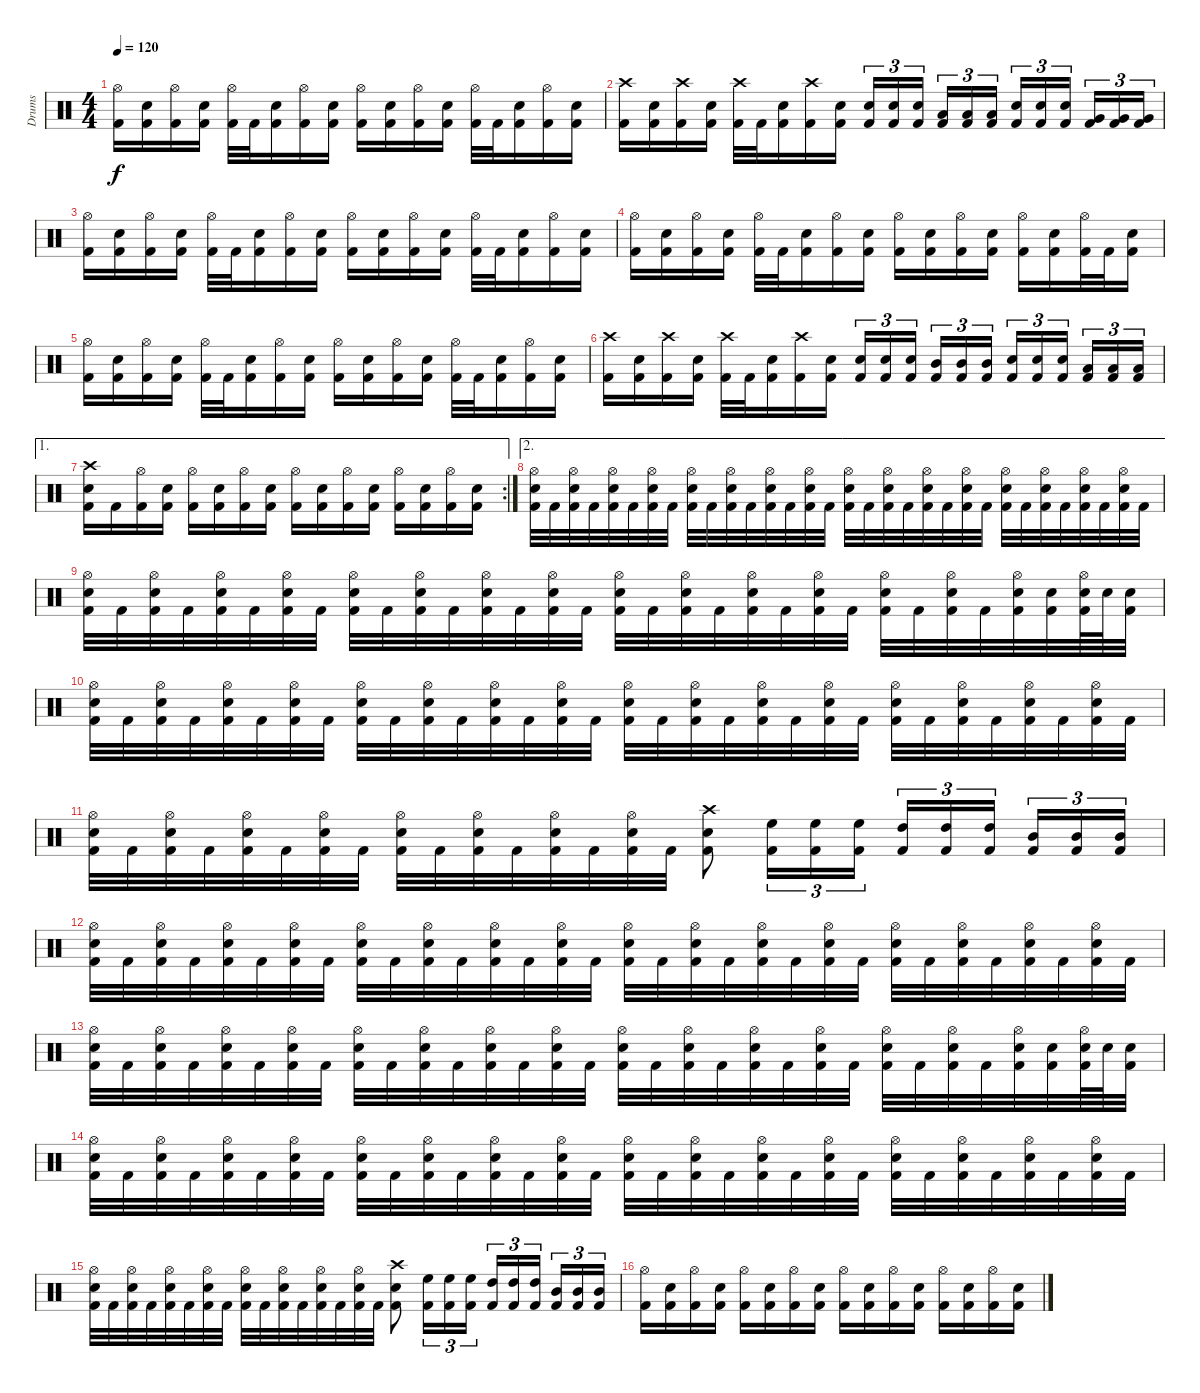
\track ("Drums" "Drums") {instrument percussion}
\staff {score}
\articulation defaults
\ts (4 4)
\tempo 120
\clef neutral
\ks c
("Hi-Hat (open)" "Kick (hit) 2").16{dy f} ("Electric Snare (hit)" "Kick (hit) 2").16 ("Hi-Hat (open)" "Kick (hit) 2").16 ("Electric Snare (hit)" "Kick (hit) 2").16 ("Hi-Hat (open)" "Kick (hit) 2").32 "Kick (hit) 2".32 ("Electric Snare (hit)" "Kick (hit) 2").16 ("Hi-Hat (open)" "Kick (hit) 2").16 ("Electric Snare (hit)" "Kick (hit) 2").16 ("Hi-Hat (open)" "Kick (hit) 2").16 ("Electric Snare (hit)" "Kick (hit) 2").16 ("Hi-Hat (open)" "Kick (hit) 2").16 ("Electric Snare (hit)" "Kick (hit) 2").16 ("Hi-Hat (open)" "Kick (hit) 2").32 "Kick (hit) 2".32 ("Electric Snare (hit)" "Kick (hit) 2").16 ("Hi-Hat (open)" "Kick (hit) 2").16 ("Electric Snare (hit)" "Kick (hit) 2").16 |
("Crash high (hit)" "Kick (hit) 2").16 ("Electric Snare (hit)" "Kick (hit) 2").16 ("Crash high (hit)" "Kick (hit) 2").16 ("Electric Snare (hit)" "Kick (hit) 2").16 ("Crash high (hit)" "Kick (hit) 2").32 "Kick (hit) 2".32 ("Electric Snare (hit)" "Kick (hit) 2").16 ("Crash high (hit)" "Kick (hit) 2").16 ("Electric Snare (hit)" "Kick (hit) 2").16 ("Electric Snare (hit)" "Kick (hit) 2").16{tu (3 2)} ("Electric Snare (hit)" "Kick (hit) 2").16{tu (3 2)} ("Electric Snare (hit)" "Kick (hit) 2").16{tu (3 2) beam splitsecondary} ("Low Tom (hit)" "Kick (hit) 2").16{tu (3 2)} ("Low Tom (hit)" "Kick (hit) 2").16{tu (3 2)} ("Low Tom (hit)" "Kick (hit) 2").16{tu (3 2)} ("Electric Snare (hit)" "Kick (hit) 2").16{tu (3 2)} ("Electric Snare (hit)" "Kick (hit) 2").16{tu (3 2)} ("Electric Snare (hit)" "Kick (hit) 2").16{tu (3 2) beam splitsecondary} ("Very Low Tom (hit)" "Kick (hit) 2").16{tu (3 2)} ("Very Low Tom (hit)" "Kick (hit) 2").16{tu (3 2)} ("Very Low Tom (hit)" "Kick (hit) 2").16{tu (3 2)} |
("Hi-Hat (open)" "Kick (hit) 2").16 ("Electric Snare (hit)" "Kick (hit) 2").16 ("Hi-Hat (open)" "Kick (hit) 2").16 ("Electric Snare (hit)" "Kick (hit) 2").16 ("Hi-Hat (open)" "Kick (hit) 2").32 "Kick (hit) 2".32 ("Electric Snare (hit)" "Kick (hit) 2").16 ("Hi-Hat (open)" "Kick (hit) 2").16 ("Electric Snare (hit)" "Kick (hit) 2").16 ("Hi-Hat (open)" "Kick (hit) 2").16 ("Electric Snare (hit)" "Kick (hit) 2").16 ("Hi-Hat (open)" "Kick (hit) 2").16 ("Electric Snare (hit)" "Kick (hit) 2").16 ("Hi-Hat (open)" "Kick (hit) 2").32 "Kick (hit) 2".32 ("Electric Snare (hit)" "Kick (hit) 2").16 ("Hi-Hat (open)" "Kick (hit) 2").16 ("Electric Snare (hit)" "Kick (hit) 2").16 |
("Hi-Hat (open)" "Kick (hit) 2").16 ("Electric Snare (hit)" "Kick (hit) 2").16 ("Hi-Hat (open)" "Kick (hit) 2").16 ("Electric Snare (hit)" "Kick (hit) 2").16 ("Hi-Hat (open)" "Kick (hit) 2").32 "Kick (hit) 2".32 ("Electric Snare (hit)" "Kick (hit) 2").16 ("Hi-Hat (open)" "Kick (hit) 2").16 ("Electric Snare (hit)" "Kick (hit) 2").16 ("Hi-Hat (open)" "Kick (hit) 2").16 ("Electric Snare (hit)" "Kick (hit) 2").16 ("Hi-Hat (open)" "Kick (hit) 2").16 ("Electric Snare (hit)" "Kick (hit) 2").16 ("Hi-Hat (open)" "Kick (hit) 2").16 ("Electric Snare (hit)" "Kick (hit) 2").16 ("Hi-Hat (open)" "Kick (hit) 2").32 "Kick (hit) 2".32 ("Electric Snare (hit)" "Kick (hit) 2").16 |
("Hi-Hat (open)" "Kick (hit) 2").16 ("Electric Snare (hit)" "Kick (hit) 2").16 ("Hi-Hat (open)" "Kick (hit) 2").16 ("Electric Snare (hit)" "Kick (hit) 2").16 ("Hi-Hat (open)" "Kick (hit) 2").32 "Kick (hit) 2".32 ("Electric Snare (hit)" "Kick (hit) 2").16 ("Hi-Hat (open)" "Kick (hit) 2").16 ("Electric Snare (hit)" "Kick (hit) 2").16 ("Hi-Hat (open)" "Kick (hit) 2").16 ("Electric Snare (hit)" "Kick (hit) 2").16 ("Hi-Hat (open)" "Kick (hit) 2").16 ("Electric Snare (hit)" "Kick (hit) 2").16 ("Hi-Hat (open)" "Kick (hit) 2").32 "Kick (hit) 2".32 ("Electric Snare (hit)" "Kick (hit) 2").16 ("Hi-Hat (open)" "Kick (hit) 2").16 ("Electric Snare (hit)" "Kick (hit) 2").16 |
("Crash high (hit)" "Kick (hit) 2").16 ("Electric Snare (hit)" "Kick (hit) 2").16 ("Crash high (hit)" "Kick (hit) 2").16 ("Electric Snare (hit)" "Kick (hit) 2").16 ("Crash high (hit)" "Kick (hit) 2").32 "Kick (hit) 2".32 ("Electric Snare (hit)" "Kick (hit) 2").16 ("Crash high (hit)" "Kick (hit) 2").16 ("Electric Snare (hit)" "Kick (hit) 2").16 ("Electric Snare (hit)" "Kick (hit) 2").16{tu (3 2)} ("Electric Snare (hit)" "Kick (hit) 2").16{tu (3 2)} ("Electric Snare (hit)" "Kick (hit) 2").16{tu (3 2) beam splitsecondary} ("Mid Tom (hit)" "Kick (hit) 2").16{tu (3 2)} ("Mid Tom (hit)" "Kick (hit) 2").16{tu (3 2)} ("Mid Tom (hit)" "Kick (hit) 2").16{tu (3 2)} ("Electric Snare (hit)" "Kick (hit) 2").16{tu (3 2)} ("Electric Snare (hit)" "Kick (hit) 2").16{tu (3 2)} ("Electric Snare (hit)" "Kick (hit) 2").16{tu (3 2) beam splitsecondary} ("Low Tom (hit)" "Kick (hit) 2").16{tu (3 2)} ("Low Tom (hit)" "Kick (hit) 2").16{tu (3 2)} ("Low Tom (hit)" "Kick (hit) 2").16{tu (3 2)} |
\ae 1
\rc 2
("Crash high (hit)" "Electric Snare (hit)" "Kick (hit) 2").16 "Kick (hit) 2".16 ("Hi-Hat (open)" "Kick (hit) 2").16 ("Electric Snare (hit)" "Kick (hit) 2").16 ("Hi-Hat (open)" "Kick (hit) 2").16 ("Electric Snare (hit)" "Kick (hit) 2").16 ("Hi-Hat (open)" "Kick (hit) 2").16 ("Electric Snare (hit)" "Kick (hit) 2").16 ("Hi-Hat (open)" "Kick (hit) 2").16 ("Electric Snare (hit)" "Kick (hit) 2").16 ("Hi-Hat (open)" "Kick (hit) 2").16 ("Electric Snare (hit)" "Kick (hit) 2").16 ("Hi-Hat (open)" "Kick (hit) 2").16 ("Electric Snare (hit)" "Kick (hit) 2").16 ("Hi-Hat (open)" "Kick (hit) 2").16 ("Electric Snare (hit)" "Kick (hit) 2").16 |
\ae 2
("Hi-Hat (open)" "Electric Snare (hit)" "Kick (hit) 2").32 "Kick (hit) 2".32 ("Hi-Hat (open)" "Electric Snare (hit)" "Kick (hit) 2").32 "Kick (hit) 2".32 ("Hi-Hat (open)" "Electric Snare (hit)" "Kick (hit) 2").32 "Kick (hit) 2".32 ("Hi-Hat (open)" "Electric Snare (hit)" "Kick (hit) 2").32 "Kick (hit) 2".32 ("Hi-Hat (open)" "Electric Snare (hit)" "Kick (hit) 2").32 "Kick (hit) 2".32 ("Hi-Hat (open)" "Electric Snare (hit)" "Kick (hit) 2").32 "Kick (hit) 2".32 ("Hi-Hat (open)" "Electric Snare (hit)" "Kick (hit) 2").32 "Kick (hit) 2".32 ("Hi-Hat (open)" "Electric Snare (hit)" "Kick (hit) 2").32 "Kick (hit) 2".32 ("Hi-Hat (open)" "Electric Snare (hit)" "Kick (hit) 2").32 "Kick (hit) 2".32 ("Hi-Hat (open)" "Electric Snare (hit)" "Kick (hit) 2").32 "Kick (hit) 2".32 ("Hi-Hat (open)" "Electric Snare (hit)" "Kick (hit) 2").32 "Kick (hit) 2".32 ("Hi-Hat (open)" "Electric Snare (hit)" "Kick (hit) 2").32 "Kick (hit) 2".32 ("Hi-Hat (open)" "Electric Snare (hit)" "Kick (hit) 2").32 "Kick (hit) 2".32 ("Hi-Hat (open)" "Electric Snare (hit)" "Kick (hit) 2").32 "Kick (hit) 2".32 ("Hi-Hat (open)" "Electric Snare (hit)" "Kick (hit) 2").32 "Kick (hit) 2".32 ("Hi-Hat (open)" "Electric Snare (hit)" "Kick (hit) 2").32 "Kick (hit) 2".32 |
("Hi-Hat (open)" "Electric Snare (hit)" "Kick (hit) 2").32 "Kick (hit) 2".32 ("Hi-Hat (open)" "Electric Snare (hit)" "Kick (hit) 2").32 "Kick (hit) 2".32 ("Hi-Hat (open)" "Electric Snare (hit)" "Kick (hit) 2").32 "Kick (hit) 2".32 ("Hi-Hat (open)" "Electric Snare (hit)" "Kick (hit) 2").32 "Kick (hit) 2".32 ("Hi-Hat (open)" "Electric Snare (hit)" "Kick (hit) 2").32 "Kick (hit) 2".32 ("Hi-Hat (open)" "Electric Snare (hit)" "Kick (hit) 2").32 "Kick (hit) 2".32 ("Hi-Hat (open)" "Electric Snare (hit)" "Kick (hit) 2").32 "Kick (hit) 2".32 ("Hi-Hat (open)" "Electric Snare (hit)" "Kick (hit) 2").32 "Kick (hit) 2".32 ("Hi-Hat (open)" "Electric Snare (hit)" "Kick (hit) 2").32 "Kick (hit) 2".32 ("Hi-Hat (open)" "Electric Snare (hit)" "Kick (hit) 2").32 "Kick (hit) 2".32 ("Hi-Hat (open)" "Electric Snare (hit)" "Kick (hit) 2").32 "Kick (hit) 2".32 ("Hi-Hat (open)" "Electric Snare (hit)" "Kick (hit) 2").32 "Kick (hit) 2".32 ("Hi-Hat (open)" "Electric Snare (hit)" "Kick (hit) 2").32 "Kick (hit) 2".32 ("Hi-Hat (open)" "Electric Snare (hit)" "Kick (hit) 2").32 "Kick (hit) 2".32 ("Hi-Hat (open)" "Electric Snare (hit)" "Kick (hit) 2").32 ("Electric Snare (hit)" "Kick (hit) 2").32 ("Hi-Hat (open)" "Electric Snare (hit)" "Kick (hit) 2").64 "Electric Snare (hit)".64 ("Electric Snare (hit)" "Kick (hit) 2").32 |
("Hi-Hat (open)" "Electric Snare (hit)" "Kick (hit) 2").32 "Kick (hit) 2".32 ("Hi-Hat (open)" "Electric Snare (hit)" "Kick (hit) 2").32 "Kick (hit) 2".32 ("Hi-Hat (open)" "Electric Snare (hit)" "Kick (hit) 2").32 "Kick (hit) 2".32 ("Hi-Hat (open)" "Electric Snare (hit)" "Kick (hit) 2").32 "Kick (hit) 2".32 ("Hi-Hat (open)" "Electric Snare (hit)" "Kick (hit) 2").32 "Kick (hit) 2".32 ("Hi-Hat (open)" "Electric Snare (hit)" "Kick (hit) 2").32 "Kick (hit) 2".32 ("Hi-Hat (open)" "Electric Snare (hit)" "Kick (hit) 2").32 "Kick (hit) 2".32 ("Hi-Hat (open)" "Electric Snare (hit)" "Kick (hit) 2").32 "Kick (hit) 2".32 ("Hi-Hat (open)" "Electric Snare (hit)" "Kick (hit) 2").32 "Kick (hit) 2".32 ("Hi-Hat (open)" "Electric Snare (hit)" "Kick (hit) 2").32 "Kick (hit) 2".32 ("Hi-Hat (open)" "Electric Snare (hit)" "Kick (hit) 2").32 "Kick (hit) 2".32 ("Hi-Hat (open)" "Electric Snare (hit)" "Kick (hit) 2").32 "Kick (hit) 2".32 ("Hi-Hat (open)" "Electric Snare (hit)" "Kick (hit) 2").32 "Kick (hit) 2".32 ("Hi-Hat (open)" "Electric Snare (hit)" "Kick (hit) 2").32 "Kick (hit) 2".32 ("Hi-Hat (open)" "Electric Snare (hit)" "Kick (hit) 2").32 "Kick (hit) 2".32 ("Hi-Hat (open)" "Electric Snare (hit)" "Kick (hit) 2").32 "Kick (hit) 2".32 |
("Hi-Hat (open)" "Electric Snare (hit)" "Kick (hit) 2").32 "Kick (hit) 2".32 ("Hi-Hat (open)" "Electric Snare (hit)" "Kick (hit) 2").32 "Kick (hit) 2".32 ("Hi-Hat (open)" "Electric Snare (hit)" "Kick (hit) 2").32 "Kick (hit) 2".32 ("Hi-Hat (open)" "Electric Snare (hit)" "Kick (hit) 2").32 "Kick (hit) 2".32 ("Hi-Hat (open)" "Electric Snare (hit)" "Kick (hit) 2").32 "Kick (hit) 2".32 ("Hi-Hat (open)" "Electric Snare (hit)" "Kick (hit) 2").32 "Kick (hit) 2".32 ("Hi-Hat (open)" "Electric Snare (hit)" "Kick (hit) 2").32 "Kick (hit) 2".32 ("Hi-Hat (open)" "Electric Snare (hit)" "Kick (hit) 2").32 "Kick (hit) 2".32 ("Crash high (hit)" "Electric Snare (hit)" "Kick (hit) 2").8 ("High Floor Tom (hit)" "Kick (hit) 2").16{tu (3 2)} ("High Floor Tom (hit)" "Kick (hit) 2").16{tu (3 2)} ("High Floor Tom (hit)" "Kick (hit) 2").16{tu (3 2)} ("High Tom (hit)" "Kick (hit) 2").16{tu (3 2)} ("High Tom (hit)" "Kick (hit) 2").16{tu (3 2)} ("High Tom (hit)" "Kick (hit) 2").16{tu (3 2) beam splitsecondary} ("Mid Tom (hit)" "Kick (hit) 2").16{tu (3 2)} ("Mid Tom (hit)" "Kick (hit) 2").16{tu (3 2)} ("Mid Tom (hit)" "Kick (hit) 2").16{tu (3 2)} |
("Hi-Hat (open)" "Electric Snare (hit)" "Kick (hit) 2").32 "Kick (hit) 2".32 ("Hi-Hat (open)" "Electric Snare (hit)" "Kick (hit) 2").32 "Kick (hit) 2".32 ("Hi-Hat (open)" "Electric Snare (hit)" "Kick (hit) 2").32 "Kick (hit) 2".32 ("Hi-Hat (open)" "Electric Snare (hit)" "Kick (hit) 2").32 "Kick (hit) 2".32 ("Hi-Hat (open)" "Electric Snare (hit)" "Kick (hit) 2").32 "Kick (hit) 2".32 ("Hi-Hat (open)" "Electric Snare (hit)" "Kick (hit) 2").32 "Kick (hit) 2".32 ("Hi-Hat (open)" "Electric Snare (hit)" "Kick (hit) 2").32 "Kick (hit) 2".32 ("Hi-Hat (open)" "Electric Snare (hit)" "Kick (hit) 2").32 "Kick (hit) 2".32 ("Hi-Hat (open)" "Electric Snare (hit)" "Kick (hit) 2").32 "Kick (hit) 2".32 ("Hi-Hat (open)" "Electric Snare (hit)" "Kick (hit) 2").32 "Kick (hit) 2".32 ("Hi-Hat (open)" "Electric Snare (hit)" "Kick (hit) 2").32 "Kick (hit) 2".32 ("Hi-Hat (open)" "Electric Snare (hit)" "Kick (hit) 2").32 "Kick (hit) 2".32 ("Hi-Hat (open)" "Electric Snare (hit)" "Kick (hit) 2").32 "Kick (hit) 2".32 ("Hi-Hat (open)" "Electric Snare (hit)" "Kick (hit) 2").32 "Kick (hit) 2".32 ("Hi-Hat (open)" "Electric Snare (hit)" "Kick (hit) 2").32 "Kick (hit) 2".32 ("Hi-Hat (open)" "Electric Snare (hit)" "Kick (hit) 2").32 "Kick (hit) 2".32 |
("Hi-Hat (open)" "Electric Snare (hit)" "Kick (hit) 2").32 "Kick (hit) 2".32 ("Hi-Hat (open)" "Electric Snare (hit)" "Kick (hit) 2").32 "Kick (hit) 2".32 ("Hi-Hat (open)" "Electric Snare (hit)" "Kick (hit) 2").32 "Kick (hit) 2".32 ("Hi-Hat (open)" "Electric Snare (hit)" "Kick (hit) 2").32 "Kick (hit) 2".32 ("Hi-Hat (open)" "Electric Snare (hit)" "Kick (hit) 2").32 "Kick (hit) 2".32 ("Hi-Hat (open)" "Electric Snare (hit)" "Kick (hit) 2").32 "Kick (hit) 2".32 ("Hi-Hat (open)" "Electric Snare (hit)" "Kick (hit) 2").32 "Kick (hit) 2".32 ("Hi-Hat (open)" "Electric Snare (hit)" "Kick (hit) 2").32 "Kick (hit) 2".32 ("Hi-Hat (open)" "Electric Snare (hit)" "Kick (hit) 2").32 "Kick (hit) 2".32 ("Hi-Hat (open)" "Electric Snare (hit)" "Kick (hit) 2").32 "Kick (hit) 2".32 ("Hi-Hat (open)" "Electric Snare (hit)" "Kick (hit) 2").32 "Kick (hit) 2".32 ("Hi-Hat (open)" "Electric Snare (hit)" "Kick (hit) 2").32 "Kick (hit) 2".32 ("Hi-Hat (open)" "Electric Snare (hit)" "Kick (hit) 2").32 "Kick (hit) 2".32 ("Hi-Hat (open)" "Electric Snare (hit)" "Kick (hit) 2").32 "Kick (hit) 2".32 ("Hi-Hat (open)" "Electric Snare (hit)" "Kick (hit) 2").32 ("Electric Snare (hit)" "Kick (hit) 2").32 ("Hi-Hat (open)" "Electric Snare (hit)" "Kick (hit) 2").64 "Electric Snare (hit)".64 ("Electric Snare (hit)" "Kick (hit) 2").32 |
("Hi-Hat (open)" "Electric Snare (hit)" "Kick (hit) 2").32 "Kick (hit) 2".32 ("Hi-Hat (open)" "Electric Snare (hit)" "Kick (hit) 2").32 "Kick (hit) 2".32 ("Hi-Hat (open)" "Electric Snare (hit)" "Kick (hit) 2").32 "Kick (hit) 2".32 ("Hi-Hat (open)" "Electric Snare (hit)" "Kick (hit) 2").32 "Kick (hit) 2".32 ("Hi-Hat (open)" "Electric Snare (hit)" "Kick (hit) 2").32 "Kick (hit) 2".32 ("Hi-Hat (open)" "Electric Snare (hit)" "Kick (hit) 2").32 "Kick (hit) 2".32 ("Hi-Hat (open)" "Electric Snare (hit)" "Kick (hit) 2").32 "Kick (hit) 2".32 ("Hi-Hat (open)" "Electric Snare (hit)" "Kick (hit) 2").32 "Kick (hit) 2".32 ("Hi-Hat (open)" "Electric Snare (hit)" "Kick (hit) 2").32 "Kick (hit) 2".32 ("Hi-Hat (open)" "Electric Snare (hit)" "Kick (hit) 2").32 "Kick (hit) 2".32 ("Hi-Hat (open)" "Electric Snare (hit)" "Kick (hit) 2").32 "Kick (hit) 2".32 ("Hi-Hat (open)" "Electric Snare (hit)" "Kick (hit) 2").32 "Kick (hit) 2".32 ("Hi-Hat (open)" "Electric Snare (hit)" "Kick (hit) 2").32 "Kick (hit) 2".32 ("Hi-Hat (open)" "Electric Snare (hit)" "Kick (hit) 2").32 "Kick (hit) 2".32 ("Hi-Hat (open)" "Electric Snare (hit)" "Kick (hit) 2").32 "Kick (hit) 2".32 ("Hi-Hat (open)" "Electric Snare (hit)" "Kick (hit) 2").32 "Kick (hit) 2".32 |
("Hi-Hat (open)" "Electric Snare (hit)" "Kick (hit) 2").32 "Kick (hit) 2".32 ("Hi-Hat (open)" "Electric Snare (hit)" "Kick (hit) 2").32 "Kick (hit) 2".32 ("Hi-Hat (open)" "Electric Snare (hit)" "Kick (hit) 2").32 "Kick (hit) 2".32 ("Hi-Hat (open)" "Electric Snare (hit)" "Kick (hit) 2").32 "Kick (hit) 2".32 ("Hi-Hat (open)" "Electric Snare (hit)" "Kick (hit) 2").32 "Kick (hit) 2".32 ("Hi-Hat (open)" "Electric Snare (hit)" "Kick (hit) 2").32 "Kick (hit) 2".32 ("Hi-Hat (open)" "Electric Snare (hit)" "Kick (hit) 2").32 "Kick (hit) 2".32 ("Hi-Hat (open)" "Electric Snare (hit)" "Kick (hit) 2").32 "Kick (hit) 2".32 ("Crash high (hit)" "Electric Snare (hit)" "Kick (hit) 2").8 ("High Floor Tom (hit)" "Kick (hit) 2").16{tu (3 2)} ("High Floor Tom (hit)" "Kick (hit) 2").16{tu (3 2)} ("High Floor Tom (hit)" "Kick (hit) 2").16{tu (3 2)} ("High Tom (hit)" "Kick (hit) 2").16{tu (3 2)} ("High Tom (hit)" "Kick (hit) 2").16{tu (3 2)} ("High Tom (hit)" "Kick (hit) 2").16{tu (3 2) beam splitsecondary} ("Mid Tom (hit)" "Kick (hit) 2").16{tu (3 2)} ("Mid Tom (hit)" "Kick (hit) 2").16{tu (3 2)} ("Mid Tom (hit)" "Kick (hit) 2").16{tu (3 2)} |
("Hi-Hat (open)" "Kick (hit) 2").16 ("Electric Snare (hit)" "Kick (hit) 2").16 ("Hi-Hat (open)" "Kick (hit) 2").16 ("Electric Snare (hit)" "Kick (hit) 2").16 ("Hi-Hat (open)" "Kick (hit) 2").16 ("Electric Snare (hit)" "Kick (hit) 2").16 ("Hi-Hat (open)" "Kick (hit) 2").16 ("Electric Snare (hit)" "Kick (hit) 2").16 ("Hi-Hat (open)" "Kick (hit) 2").16 ("Electric Snare (hit)" "Kick (hit) 2").16 ("Hi-Hat (open)" "Kick (hit) 2").16 ("Electric Snare (hit)" "Kick (hit) 2").16 ("Hi-Hat (open)" "Kick (hit) 2").16 ("Electric Snare (hit)" "Kick (hit) 2").16 ("Hi-Hat (open)" "Kick (hit) 2").16 ("Electric Snare (hit)" "Kick (hit) 2").16
